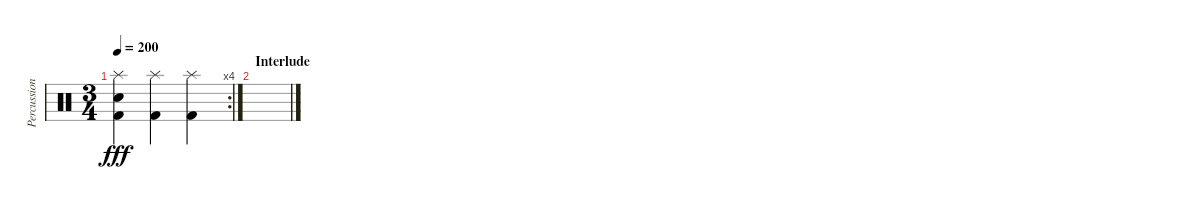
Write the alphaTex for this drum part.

\track ("Percussion" "Percussion") {instrument percussion}
\staff {score}
\articulation defaults
\rc 4
\ts (3 4)
\tempo 200
\clef neutral
\ks c
("Splash (hit)" "Electric Snare (hit)" "Kick (hit) 2").4{dy fff} ("Splash (hit)" "Kick (hit) 2").4 ("Splash (hit)" "Kick (hit) 2").4 |
\section ("" "Interlude")
